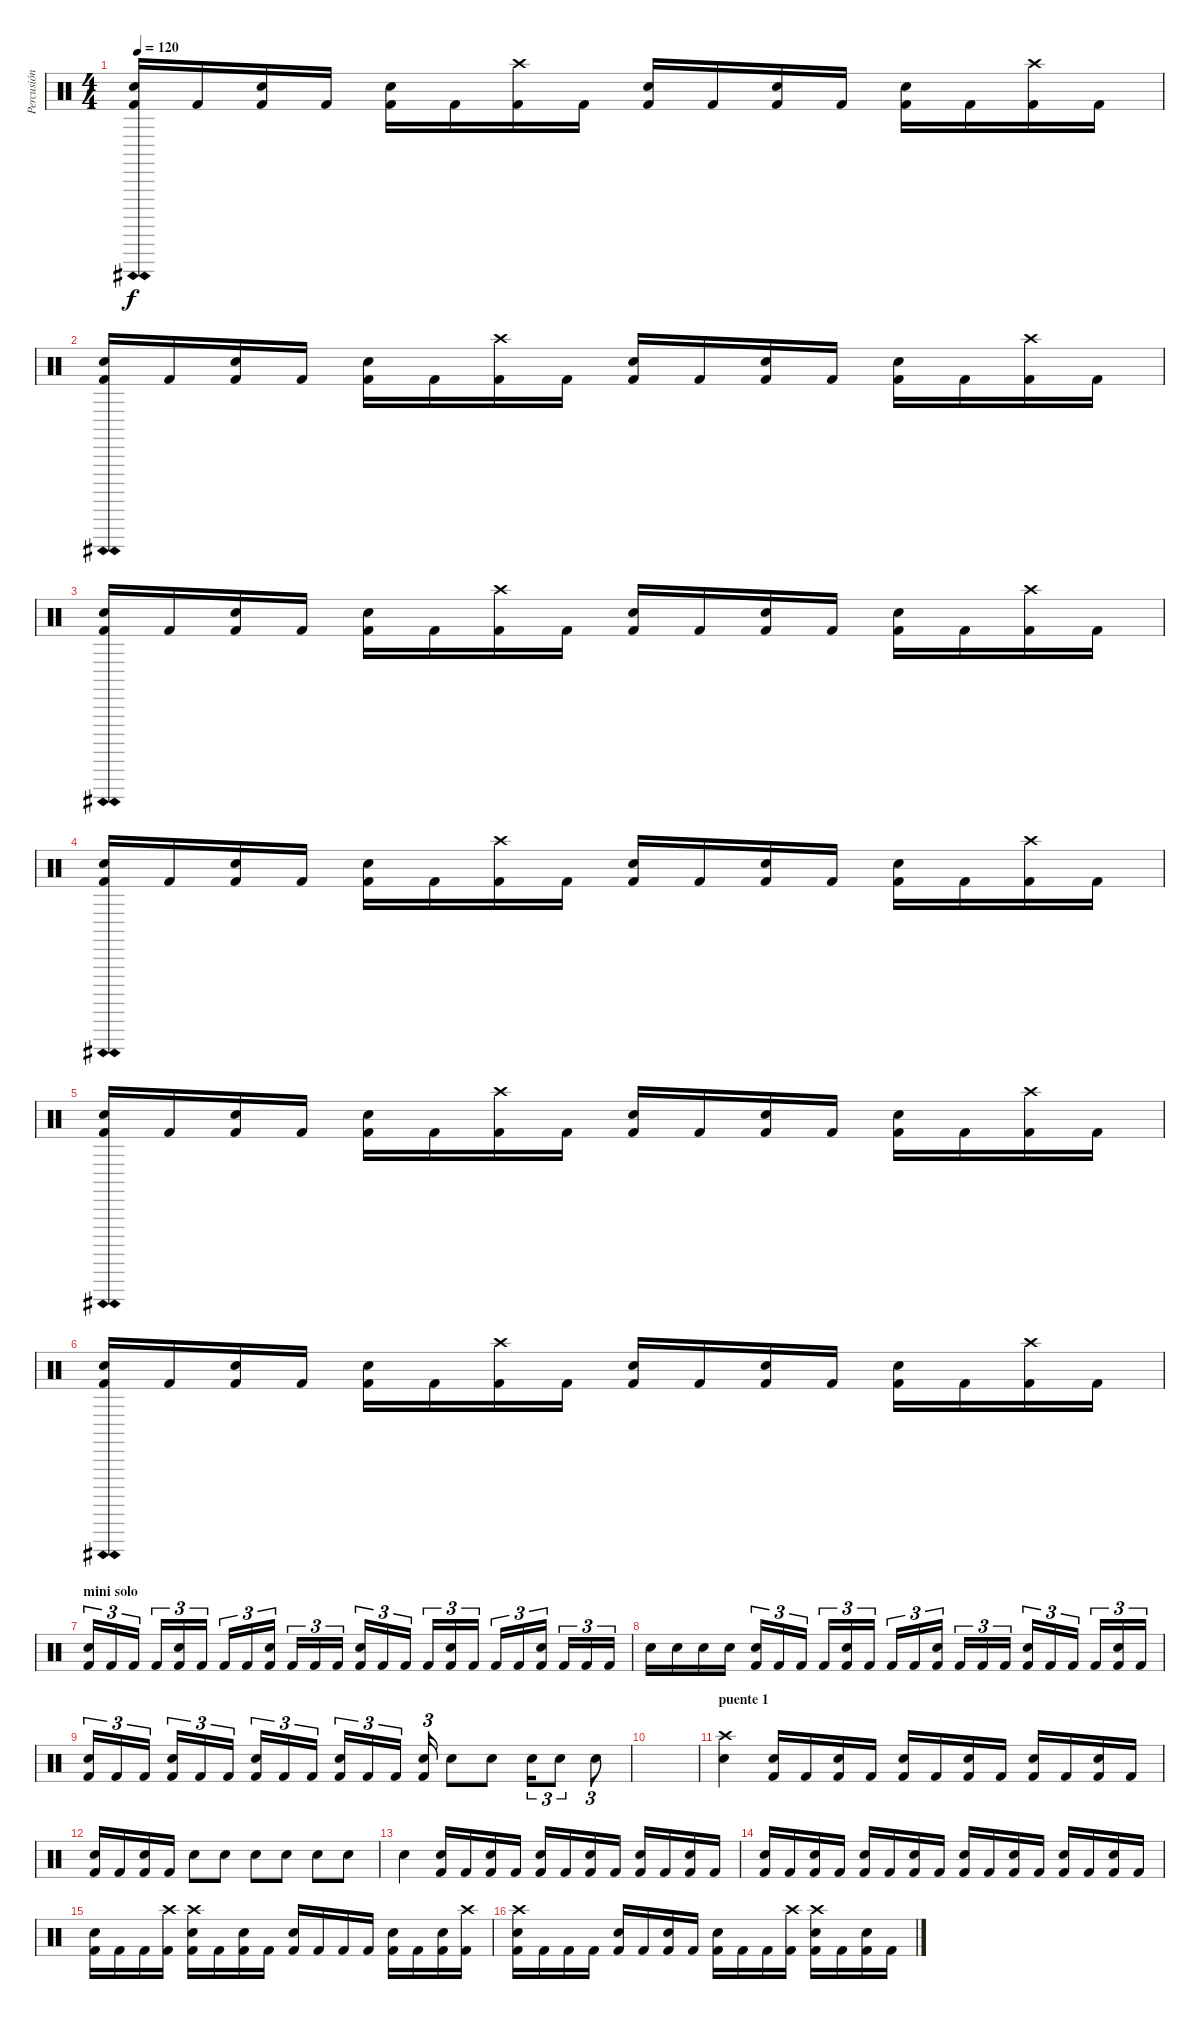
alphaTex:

\track ("Percusión" "Percusión") {instrument percussion}
\staff {score}
\articulation defaults
\ts (4 4)
\tempo 120
\clef neutral
\ks c
("Kick (hit) 2"{ah 12} "Electric Snare (hit)"{ah 12}).16{dy f} "Kick (hit) 2".16 ("Kick (hit) 2" "Electric Snare (hit)").16 "Kick (hit) 2".16 ("Kick (hit) 2" "Electric Snare (hit)").16 "Kick (hit) 2".16 ("Crash high (hit)" "Kick (hit) 2").16 "Kick (hit) 2".16 ("Kick (hit) 2" "Electric Snare (hit)").16 "Kick (hit) 2".16 ("Kick (hit) 2" "Electric Snare (hit)").16 "Kick (hit) 2".16 ("Kick (hit) 2" "Electric Snare (hit)").16 "Kick (hit) 2".16 ("Crash high (hit)" "Kick (hit) 2").16 "Kick (hit) 2".16 |
("Kick (hit) 2"{ah 12} "Electric Snare (hit)"{ah 12}).16 "Kick (hit) 2".16 ("Kick (hit) 2" "Electric Snare (hit)").16 "Kick (hit) 2".16 ("Kick (hit) 2" "Electric Snare (hit)").16 "Kick (hit) 2".16 ("Crash high (hit)" "Kick (hit) 2").16 "Kick (hit) 2".16 ("Kick (hit) 2" "Electric Snare (hit)").16 "Kick (hit) 2".16 ("Kick (hit) 2" "Electric Snare (hit)").16 "Kick (hit) 2".16 ("Kick (hit) 2" "Electric Snare (hit)").16 "Kick (hit) 2".16 ("Crash high (hit)" "Kick (hit) 2").16 "Kick (hit) 2".16 |
("Kick (hit) 2"{ah 12} "Electric Snare (hit)"{ah 12}).16 "Kick (hit) 2".16 ("Kick (hit) 2" "Electric Snare (hit)").16 "Kick (hit) 2".16 ("Kick (hit) 2" "Electric Snare (hit)").16 "Kick (hit) 2".16 ("Crash high (hit)" "Kick (hit) 2").16 "Kick (hit) 2".16 ("Kick (hit) 2" "Electric Snare (hit)").16 "Kick (hit) 2".16 ("Kick (hit) 2" "Electric Snare (hit)").16 "Kick (hit) 2".16 ("Kick (hit) 2" "Electric Snare (hit)").16 "Kick (hit) 2".16 ("Crash high (hit)" "Kick (hit) 2").16 "Kick (hit) 2".16 |
("Kick (hit) 2"{ah 12} "Electric Snare (hit)"{ah 12}).16 "Kick (hit) 2".16 ("Kick (hit) 2" "Electric Snare (hit)").16 "Kick (hit) 2".16 ("Kick (hit) 2" "Electric Snare (hit)").16 "Kick (hit) 2".16 ("Crash high (hit)" "Kick (hit) 2").16 "Kick (hit) 2".16 ("Kick (hit) 2" "Electric Snare (hit)").16 "Kick (hit) 2".16 ("Kick (hit) 2" "Electric Snare (hit)").16 "Kick (hit) 2".16 ("Kick (hit) 2" "Electric Snare (hit)").16 "Kick (hit) 2".16 ("Crash high (hit)" "Kick (hit) 2").16 "Kick (hit) 2".16 |
("Kick (hit) 2"{ah 12} "Electric Snare (hit)"{ah 12}).16 "Kick (hit) 2".16 ("Kick (hit) 2" "Electric Snare (hit)").16 "Kick (hit) 2".16 ("Kick (hit) 2" "Electric Snare (hit)").16 "Kick (hit) 2".16 ("Crash high (hit)" "Kick (hit) 2").16 "Kick (hit) 2".16 ("Kick (hit) 2" "Electric Snare (hit)").16 "Kick (hit) 2".16 ("Kick (hit) 2" "Electric Snare (hit)").16 "Kick (hit) 2".16 ("Kick (hit) 2" "Electric Snare (hit)").16 "Kick (hit) 2".16 ("Crash high (hit)" "Kick (hit) 2").16 "Kick (hit) 2".16 |
("Kick (hit) 2"{ah 12} "Electric Snare (hit)"{ah 12}).16 "Kick (hit) 2".16 ("Kick (hit) 2" "Electric Snare (hit)").16 "Kick (hit) 2".16 ("Kick (hit) 2" "Electric Snare (hit)").16 "Kick (hit) 2".16 ("Crash high (hit)" "Kick (hit) 2").16 "Kick (hit) 2".16 ("Kick (hit) 2" "Electric Snare (hit)").16 "Kick (hit) 2".16 ("Kick (hit) 2" "Electric Snare (hit)").16 "Kick (hit) 2".16 ("Kick (hit) 2" "Electric Snare (hit)").16 "Kick (hit) 2".16 ("Crash high (hit)" "Kick (hit) 2").16 "Kick (hit) 2".16 |
\section ("" "mini solo")
("Kick (hit) 2" "Electric Snare (hit)").16{tu (3 2)} "Kick (hit) 2".16{tu (3 2)} "Kick (hit) 2".16{tu (3 2)} "Kick (hit) 2".16{tu (3 2)} ("Kick (hit) 2" "Electric Snare (hit)").16{tu (3 2)} "Kick (hit) 2".16{tu (3 2)} "Kick (hit) 2".16{tu (3 2)} "Kick (hit) 2".16{tu (3 2)} ("Kick (hit) 2" "Electric Snare (hit)").16{tu (3 2)} "Kick (hit) 2".16{tu (3 2)} "Kick (hit) 2".16{tu (3 2)} "Kick (hit) 2".16{tu (3 2)} ("Kick (hit) 2" "Electric Snare (hit)").16{tu (3 2)} "Kick (hit) 2".16{tu (3 2)} "Kick (hit) 2".16{tu (3 2)} "Kick (hit) 2".16{tu (3 2)} ("Kick (hit) 2" "Electric Snare (hit)").16{tu (3 2)} "Kick (hit) 2".16{tu (3 2)} "Kick (hit) 2".16{tu (3 2)} "Kick (hit) 2".16{tu (3 2)} ("Kick (hit) 2" "Electric Snare (hit)").16{tu (3 2)} "Kick (hit) 2".16{tu (3 2)} "Kick (hit) 2".16{tu (3 2)} "Kick (hit) 2".16{tu (3 2)} |
"Electric Snare (hit)".16 "Electric Snare (hit)".16 "Electric Snare (hit)".16 "Electric Snare (hit)".16 ("Kick (hit) 2" "Electric Snare (hit)").16{tu (3 2)} "Kick (hit) 2".16{tu (3 2)} "Kick (hit) 2".16{tu (3 2)} "Kick (hit) 2".16{tu (3 2)} ("Kick (hit) 2" "Electric Snare (hit)").16{tu (3 2)} "Kick (hit) 2".16{tu (3 2)} "Kick (hit) 2".16{tu (3 2)} "Kick (hit) 2".16{tu (3 2)} ("Kick (hit) 2" "Electric Snare (hit)").16{tu (3 2)} "Kick (hit) 2".16{tu (3 2)} "Kick (hit) 2".16{tu (3 2)} "Kick (hit) 2".16{tu (3 2)} ("Kick (hit) 2" "Electric Snare (hit)").16{tu (3 2)} "Kick (hit) 2".16{tu (3 2)} "Kick (hit) 2".16{tu (3 2)} "Kick (hit) 2".16{tu (3 2)} ("Kick (hit) 2" "Electric Snare (hit)").16{tu (3 2)} "Kick (hit) 2".16{tu (3 2)} |
("Kick (hit) 2" "Electric Snare (hit)").16{tu (3 2)} "Kick (hit) 2".16{tu (3 2)} "Kick (hit) 2".16{tu (3 2)} ("Kick (hit) 2" "Electric Snare (hit)").16{tu (3 2)} "Kick (hit) 2".16{tu (3 2)} "Kick (hit) 2".16{tu (3 2)} ("Kick (hit) 2" "Electric Snare (hit)").16{tu (3 2)} "Kick (hit) 2".16{tu (3 2)} "Kick (hit) 2".16{tu (3 2)} ("Kick (hit) 2" "Electric Snare (hit)").16{tu (3 2)} "Kick (hit) 2".16{tu (3 2)} "Kick (hit) 2".16{tu (3 2)} ("Kick (hit) 2" "Electric Snare (hit)").16{tu (3 2)} "Electric Snare (hit)".8 "Electric Snare (hit)".8 "Electric Snare (hit)".16{tu (3 2)} "Electric Snare (hit)".8{tu (3 2)} "Electric Snare (hit)".8{tu (3 2)} |
|
\section ("" "puente 1")
("Crash high (hit)" "Electric Snare (hit)").4 ("Kick (hit) 2" "Electric Snare (hit)").16 "Kick (hit) 2".16 ("Kick (hit) 2" "Electric Snare (hit)").16 "Kick (hit) 2".16 ("Kick (hit) 2" "Electric Snare (hit)").16 "Kick (hit) 2".16 ("Kick (hit) 2" "Electric Snare (hit)").16 "Kick (hit) 2".16 ("Kick (hit) 2" "Electric Snare (hit)").16 "Kick (hit) 2".16 ("Kick (hit) 2" "Electric Snare (hit)").16 "Kick (hit) 2".16 |
("Kick (hit) 2" "Electric Snare (hit)").16 "Kick (hit) 2".16 ("Kick (hit) 2" "Electric Snare (hit)").16 "Kick (hit) 2".16 "Electric Snare (hit)".8 "Electric Snare (hit)".8 "Electric Snare (hit)".8 "Electric Snare (hit)".8 "Electric Snare (hit)".8 "Electric Snare (hit)".8 |
"Electric Snare (hit)".4 ("Kick (hit) 2" "Electric Snare (hit)").16 "Kick (hit) 2".16 ("Kick (hit) 2" "Electric Snare (hit)").16 "Kick (hit) 2".16 ("Kick (hit) 2" "Electric Snare (hit)").16 "Kick (hit) 2".16 ("Kick (hit) 2" "Electric Snare (hit)").16 "Kick (hit) 2".16 ("Kick (hit) 2" "Electric Snare (hit)").16 "Kick (hit) 2".16 ("Kick (hit) 2" "Electric Snare (hit)").16 "Kick (hit) 2".16 |
("Kick (hit) 2" "Electric Snare (hit)").16 "Kick (hit) 2".16 ("Kick (hit) 2" "Electric Snare (hit)").16 "Kick (hit) 2".16 ("Kick (hit) 2" "Electric Snare (hit)").16 "Kick (hit) 2".16 ("Kick (hit) 2" "Electric Snare (hit)").16 "Kick (hit) 2".16 ("Kick (hit) 2" "Electric Snare (hit)").16 "Kick (hit) 2".16 ("Kick (hit) 2" "Electric Snare (hit)").16 "Kick (hit) 2".16 ("Kick (hit) 2" "Electric Snare (hit)").16 "Kick (hit) 2".16 ("Kick (hit) 2" "Electric Snare (hit)").16 "Kick (hit) 2".16 |
("Kick (hit) 2" "Electric Snare (hit)").16 "Kick (hit) 2".16 "Kick (hit) 2".16 ("Crash high (hit)" "Kick (hit) 2").16 ("Crash high (hit)" "Kick (hit) 2" "Electric Snare (hit)").16 "Kick (hit) 2".16 ("Kick (hit) 2" "Electric Snare (hit)").16 "Kick (hit) 2".16 ("Kick (hit) 2" "Electric Snare (hit)").16 "Kick (hit) 2".16 "Kick (hit) 2".16 "Kick (hit) 2".16 ("Kick (hit) 2" "Electric Snare (hit)").16 "Kick (hit) 2".16 ("Kick (hit) 2" "Electric Snare (hit)").16 ("Crash high (hit)" "Kick (hit) 2").16 |
("Crash high (hit)" "Kick (hit) 2" "Electric Snare (hit)").16 "Kick (hit) 2".16 "Kick (hit) 2".16 "Kick (hit) 2".16 ("Kick (hit) 2" "Electric Snare (hit)").16 "Kick (hit) 2".16 ("Kick (hit) 2" "Electric Snare (hit)").16 "Kick (hit) 2".16 ("Kick (hit) 2" "Electric Snare (hit)").16 "Kick (hit) 2".16 "Kick (hit) 2".16 ("Crash high (hit)" "Kick (hit) 2").16 ("Crash high (hit)" "Kick (hit) 2" "Electric Snare (hit)").16 "Kick (hit) 2".16 ("Kick (hit) 2" "Electric Snare (hit)").16 "Kick (hit) 2".16
